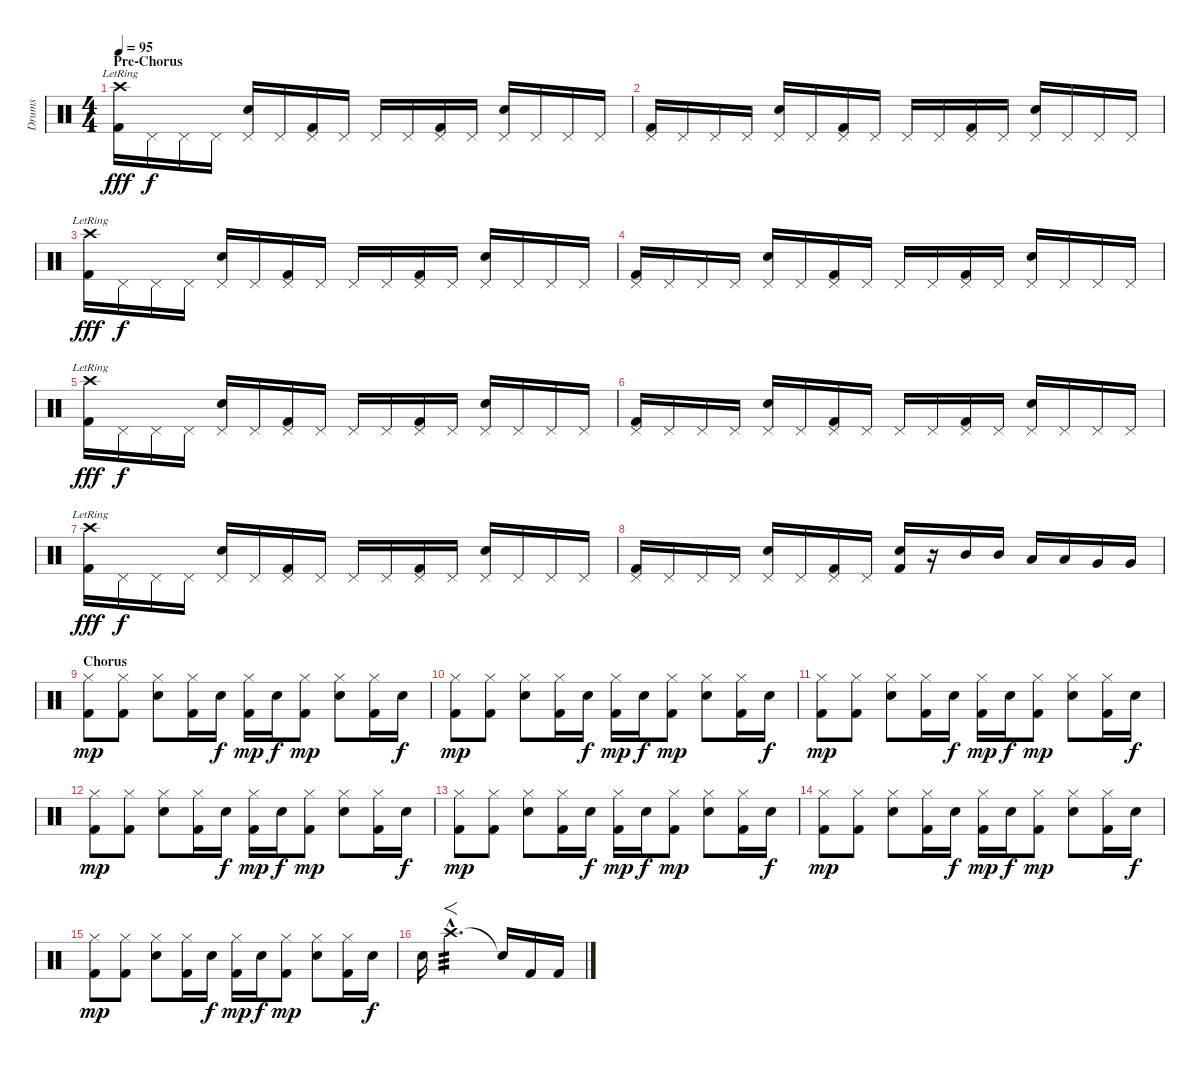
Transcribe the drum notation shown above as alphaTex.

\track ("Drums" "Drums") {instrument percussion}
\staff {score}
\articulation defaults
\ts (4 4)
\section ("" "Pre-Chorus")
\tempo 95
\clef neutral
\ks c
("Crash high (hit)"{lr} "Kick (hit) 2").16{dy fff} "Pedal Hi-Hat (hit)".16{dy f} "Pedal Hi-Hat (hit)".16 "Pedal Hi-Hat (hit)".16 ("Pedal Hi-Hat (hit)" "Electric Snare (hit)").16 "Pedal Hi-Hat (hit)".16 ("Pedal Hi-Hat (hit)" "Kick (hit) 2").16 "Pedal Hi-Hat (hit)".16 "Pedal Hi-Hat (hit)".16 "Pedal Hi-Hat (hit)".16 ("Pedal Hi-Hat (hit)" "Kick (hit) 2").16 "Pedal Hi-Hat (hit)".16 ("Pedal Hi-Hat (hit)" "Electric Snare (hit)").16 "Pedal Hi-Hat (hit)".16 "Pedal Hi-Hat (hit)".16 "Pedal Hi-Hat (hit)".16 |
("Pedal Hi-Hat (hit)" "Kick (hit) 2").16 "Pedal Hi-Hat (hit)".16 "Pedal Hi-Hat (hit)".16 "Pedal Hi-Hat (hit)".16 ("Pedal Hi-Hat (hit)" "Electric Snare (hit)").16 "Pedal Hi-Hat (hit)".16 ("Pedal Hi-Hat (hit)" "Kick (hit) 2").16 "Pedal Hi-Hat (hit)".16 "Pedal Hi-Hat (hit)".16 "Pedal Hi-Hat (hit)".16 ("Pedal Hi-Hat (hit)" "Kick (hit) 2").16 "Pedal Hi-Hat (hit)".16 ("Pedal Hi-Hat (hit)" "Electric Snare (hit)").16 "Pedal Hi-Hat (hit)".16 "Pedal Hi-Hat (hit)".16 "Pedal Hi-Hat (hit)".16 |
("Crash high (hit)"{lr} "Kick (hit) 2").16{dy fff} "Pedal Hi-Hat (hit)".16{dy f} "Pedal Hi-Hat (hit)".16 "Pedal Hi-Hat (hit)".16 ("Pedal Hi-Hat (hit)" "Electric Snare (hit)").16 "Pedal Hi-Hat (hit)".16 ("Pedal Hi-Hat (hit)" "Kick (hit) 2").16 "Pedal Hi-Hat (hit)".16 "Pedal Hi-Hat (hit)".16 "Pedal Hi-Hat (hit)".16 ("Pedal Hi-Hat (hit)" "Kick (hit) 2").16 "Pedal Hi-Hat (hit)".16 ("Pedal Hi-Hat (hit)" "Electric Snare (hit)").16 "Pedal Hi-Hat (hit)".16 "Pedal Hi-Hat (hit)".16 "Pedal Hi-Hat (hit)".16 |
("Pedal Hi-Hat (hit)" "Kick (hit) 2").16 "Pedal Hi-Hat (hit)".16 "Pedal Hi-Hat (hit)".16 "Pedal Hi-Hat (hit)".16 ("Pedal Hi-Hat (hit)" "Electric Snare (hit)").16 "Pedal Hi-Hat (hit)".16 ("Pedal Hi-Hat (hit)" "Kick (hit) 2").16 "Pedal Hi-Hat (hit)".16 "Pedal Hi-Hat (hit)".16 "Pedal Hi-Hat (hit)".16 ("Pedal Hi-Hat (hit)" "Kick (hit) 2").16 "Pedal Hi-Hat (hit)".16 ("Pedal Hi-Hat (hit)" "Electric Snare (hit)").16 "Pedal Hi-Hat (hit)".16 "Pedal Hi-Hat (hit)".16 "Pedal Hi-Hat (hit)".16 |
("Crash high (hit)"{lr} "Kick (hit) 2").16{dy fff} "Pedal Hi-Hat (hit)".16{dy f} "Pedal Hi-Hat (hit)".16 "Pedal Hi-Hat (hit)".16 ("Pedal Hi-Hat (hit)" "Electric Snare (hit)").16 "Pedal Hi-Hat (hit)".16 ("Pedal Hi-Hat (hit)" "Kick (hit) 2").16 "Pedal Hi-Hat (hit)".16 "Pedal Hi-Hat (hit)".16 "Pedal Hi-Hat (hit)".16 ("Pedal Hi-Hat (hit)" "Kick (hit) 2").16 "Pedal Hi-Hat (hit)".16 ("Pedal Hi-Hat (hit)" "Electric Snare (hit)").16 "Pedal Hi-Hat (hit)".16 "Pedal Hi-Hat (hit)".16 "Pedal Hi-Hat (hit)".16 |
("Pedal Hi-Hat (hit)" "Kick (hit) 2").16 "Pedal Hi-Hat (hit)".16 "Pedal Hi-Hat (hit)".16 "Pedal Hi-Hat (hit)".16 ("Pedal Hi-Hat (hit)" "Electric Snare (hit)").16 "Pedal Hi-Hat (hit)".16 ("Pedal Hi-Hat (hit)" "Kick (hit) 2").16 "Pedal Hi-Hat (hit)".16 "Pedal Hi-Hat (hit)".16 "Pedal Hi-Hat (hit)".16 ("Pedal Hi-Hat (hit)" "Kick (hit) 2").16 "Pedal Hi-Hat (hit)".16 ("Pedal Hi-Hat (hit)" "Electric Snare (hit)").16 "Pedal Hi-Hat (hit)".16 "Pedal Hi-Hat (hit)".16 "Pedal Hi-Hat (hit)".16 |
("Crash high (hit)"{lr} "Kick (hit) 2").16{dy fff} "Pedal Hi-Hat (hit)".16{dy f} "Pedal Hi-Hat (hit)".16 "Pedal Hi-Hat (hit)".16 ("Pedal Hi-Hat (hit)" "Electric Snare (hit)").16 "Pedal Hi-Hat (hit)".16 ("Pedal Hi-Hat (hit)" "Kick (hit) 2").16 "Pedal Hi-Hat (hit)".16 "Pedal Hi-Hat (hit)".16 "Pedal Hi-Hat (hit)".16 ("Pedal Hi-Hat (hit)" "Kick (hit) 2").16 "Pedal Hi-Hat (hit)".16 ("Pedal Hi-Hat (hit)" "Electric Snare (hit)").16 "Pedal Hi-Hat (hit)".16 "Pedal Hi-Hat (hit)".16 "Pedal Hi-Hat (hit)".16 |
("Pedal Hi-Hat (hit)" "Kick (hit) 2").16 "Pedal Hi-Hat (hit)".16 "Pedal Hi-Hat (hit)".16 "Pedal Hi-Hat (hit)".16 ("Pedal Hi-Hat (hit)" "Electric Snare (hit)").16 "Pedal Hi-Hat (hit)".16 ("Pedal Hi-Hat (hit)" "Kick (hit) 2").16 "Pedal Hi-Hat (hit)".16 ("Electric Snare (hit)" "Kick (hit) 2").16 r.16 "Mid Tom (hit)".16 "Mid Tom (hit)".16 "Low Tom (hit)".16 "Low Tom (hit)".16 "Very Low Tom (hit)".16 "Very Low Tom (hit)".16 |
\section ("" "Chorus")
("Hi-Hat (closed)" "Kick (hit) 2").8{dy mp} ("Hi-Hat (closed)" "Kick (hit) 2").8 ("Hi-Hat (closed)" "Electric Snare (hit)").8 ("Hi-Hat (closed)" "Kick (hit) 2").16 "Electric Snare (hit)".16{dy f} ("Hi-Hat (closed)" "Kick (hit) 2").16{dy mp} "Electric Snare (hit)".16{dy f} ("Hi-Hat (closed)" "Kick (hit) 2").8{dy mp} ("Hi-Hat (closed)" "Electric Snare (hit)").8 ("Hi-Hat (closed)" "Kick (hit) 2").16 "Electric Snare (hit)".16{dy f} |
("Hi-Hat (closed)" "Kick (hit) 2").8{dy mp} ("Hi-Hat (closed)" "Kick (hit) 2").8 ("Hi-Hat (closed)" "Electric Snare (hit)").8 ("Hi-Hat (closed)" "Kick (hit) 2").16 "Electric Snare (hit)".16{dy f} ("Hi-Hat (closed)" "Kick (hit) 2").16{dy mp} "Electric Snare (hit)".16{dy f} ("Hi-Hat (closed)" "Kick (hit) 2").8{dy mp} ("Hi-Hat (closed)" "Electric Snare (hit)").8 ("Hi-Hat (closed)" "Kick (hit) 2").16 "Electric Snare (hit)".16{dy f} |
("Hi-Hat (closed)" "Kick (hit) 2").8{dy mp} ("Hi-Hat (closed)" "Kick (hit) 2").8 ("Hi-Hat (closed)" "Electric Snare (hit)").8 ("Hi-Hat (closed)" "Kick (hit) 2").16 "Electric Snare (hit)".16{dy f} ("Hi-Hat (closed)" "Kick (hit) 2").16{dy mp} "Electric Snare (hit)".16{dy f} ("Hi-Hat (closed)" "Kick (hit) 2").8{dy mp} ("Hi-Hat (closed)" "Electric Snare (hit)").8 ("Hi-Hat (closed)" "Kick (hit) 2").16 "Electric Snare (hit)".16{dy f} |
("Hi-Hat (closed)" "Kick (hit) 2").8{dy mp} ("Hi-Hat (closed)" "Kick (hit) 2").8 ("Hi-Hat (closed)" "Electric Snare (hit)").8 ("Hi-Hat (closed)" "Kick (hit) 2").16 "Electric Snare (hit)".16{dy f} ("Hi-Hat (closed)" "Kick (hit) 2").16{dy mp} "Electric Snare (hit)".16{dy f} ("Hi-Hat (closed)" "Kick (hit) 2").8{dy mp} ("Hi-Hat (closed)" "Electric Snare (hit)").8 ("Hi-Hat (closed)" "Kick (hit) 2").16 "Electric Snare (hit)".16{dy f} |
("Hi-Hat (closed)" "Kick (hit) 2").8{dy mp} ("Hi-Hat (closed)" "Kick (hit) 2").8 ("Hi-Hat (closed)" "Electric Snare (hit)").8 ("Hi-Hat (closed)" "Kick (hit) 2").16 "Electric Snare (hit)".16{dy f} ("Hi-Hat (closed)" "Kick (hit) 2").16{dy mp} "Electric Snare (hit)".16{dy f} ("Hi-Hat (closed)" "Kick (hit) 2").8{dy mp} ("Hi-Hat (closed)" "Electric Snare (hit)").8 ("Hi-Hat (closed)" "Kick (hit) 2").16 "Electric Snare (hit)".16{dy f} |
("Hi-Hat (closed)" "Kick (hit) 2").8{dy mp} ("Hi-Hat (closed)" "Kick (hit) 2").8 ("Hi-Hat (closed)" "Electric Snare (hit)").8 ("Hi-Hat (closed)" "Kick (hit) 2").16 "Electric Snare (hit)".16{dy f} ("Hi-Hat (closed)" "Kick (hit) 2").16{dy mp} "Electric Snare (hit)".16{dy f} ("Hi-Hat (closed)" "Kick (hit) 2").8{dy mp} ("Hi-Hat (closed)" "Electric Snare (hit)").8 ("Hi-Hat (closed)" "Kick (hit) 2").16 "Electric Snare (hit)".16{dy f} |
("Hi-Hat (closed)" "Kick (hit) 2").8{dy mp} ("Hi-Hat (closed)" "Kick (hit) 2").8 ("Hi-Hat (closed)" "Electric Snare (hit)").8 ("Hi-Hat (closed)" "Kick (hit) 2").16 "Electric Snare (hit)".16{dy f} ("Hi-Hat (closed)" "Kick (hit) 2").16{dy mp} "Electric Snare (hit)".16{dy f} ("Hi-Hat (closed)" "Kick (hit) 2").8{dy mp} ("Hi-Hat (closed)" "Electric Snare (hit)").8 ("Hi-Hat (closed)" "Kick (hit) 2").16 "Electric Snare (hit)".16{dy f} |
"Electric Snare (hit)".16 "Crash high (hit)"{hac}.2{f d tp 3} "Snare (hit)"{t}.16 "Kick (hit) 2".16 "Kick (hit) 2".16
